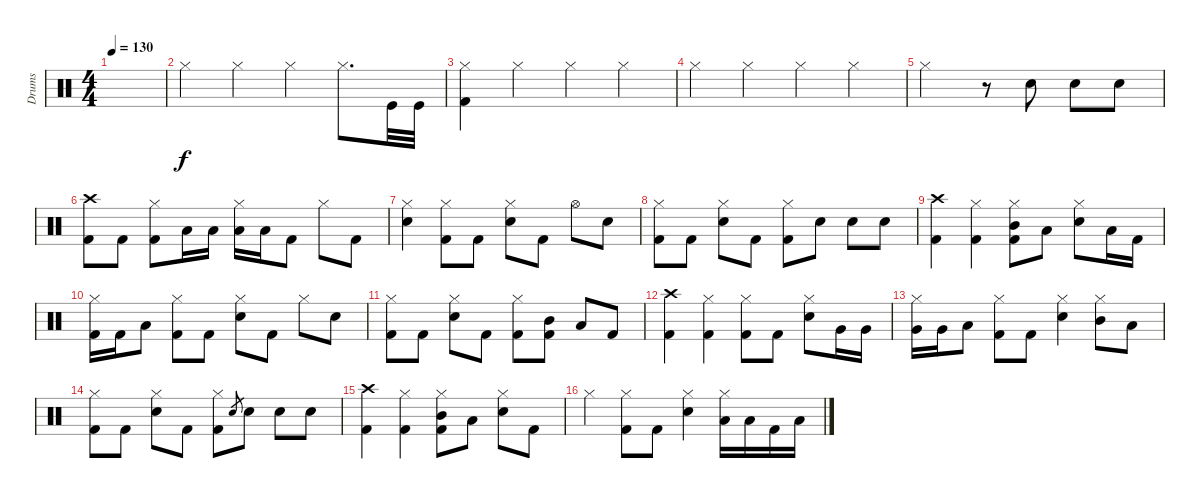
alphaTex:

\track ("Drums" "Drums") {instrument percussion}
\staff {score}
\articulation defaults
\ts (4 4)
\tempo 130
\clef neutral
\ks c
|
"Hi-Hat (closed)".4 "Hi-Hat (closed)".4 "Hi-Hat (closed)".4 "Hi-Hat (closed)".8{d} "Kick (hit)".32 "Kick (hit)".32 |
("Hi-Hat (closed)" "Kick (hit) 2").4 "Hi-Hat (closed)".4 "Hi-Hat (closed)".4 "Hi-Hat (closed)".4 |
"Hi-Hat (closed)".4 "Hi-Hat (closed)".4 "Hi-Hat (closed)".4 "Hi-Hat (closed)".4 |
"Hi-Hat (closed)".2 r.8 "Snare (hit) 2".8 "Snare (hit) 2".8 "Snare (hit) 2".8 |
("Crash high (hit)" "Kick (hit) 2").8 "Kick (hit) 2".8 ("Hi-Hat (closed)" "Kick (hit) 2").8 "Low Tom (hit)".16 "Low Tom (hit)".16 ("Hi-Hat (closed)" "Low Floor Tom (hit)").16 "Low Floor Tom (hit)".16 "Kick (hit) 2".8 "Hi-Hat (closed)".8 "Kick (hit) 2".8 |
("Hi-Hat (closed)" "Snare (hit) 2").4 ("Hi-Hat (closed)" "Kick (hit) 2").8 "Kick (hit) 2".8 ("Hi-Hat (closed)" "Snare (hit) 2").8 "Kick (hit) 2".8 "Hi-Hat (open)".8 "Snare (hit) 2".8 |
("Hi-Hat (closed)" "Kick (hit) 2").8 "Kick (hit) 2".8 ("Hi-Hat (closed)" "Snare (hit) 2").8 "Kick (hit) 2".8 ("Hi-Hat (closed)" "Kick (hit) 2").8 "Snare (hit) 2".8 "Snare (hit) 2".8 "Snare (hit) 2".8 |
("Crash high (hit)" "Kick (hit) 2").4 ("Hi-Hat (closed)" "Kick (hit) 2").4 ("Hi-Hat (closed)" "Mid Tom (hit)" "Kick (hit) 2").8 "Low Tom (hit)".8 ("Hi-Hat (closed)" "Snare (hit) 2").8 "Low Floor Tom (hit)".16 "Kick (hit) 2".16 |
("Hi-Hat (closed)" "Kick (hit) 2").16 "Kick (hit) 2".16 "Low Floor Tom (hit)".8 ("Hi-Hat (closed)" "Kick (hit) 2").8 "Kick (hit) 2".8 ("Hi-Hat (closed)" "Snare (hit) 2").8 "Kick (hit) 2".8 "Hi-Hat (closed)".8 "Snare (hit) 2".8 |
("Hi-Hat (closed)" "Kick (hit) 2").8 "Kick (hit) 2".8 ("Hi-Hat (closed)" "Snare (hit) 2").8 "Kick (hit) 2".8 ("Hi-Hat (closed)" "Kick (hit) 2").8 ("Mid Tom (hit)" "Kick (hit) 2").8 "Low Tom (hit)".8 "Kick (hit) 2".8 |
("Crash high (hit)" "Kick (hit) 2").4 ("Hi-Hat (closed)" "Kick (hit) 2").4 ("Hi-Hat (closed)" "Kick (hit) 2").8 "Kick (hit) 2".8 ("Hi-Hat (closed)" "Snare (hit) 2").8 "Very Low Tom (hit)".16 "Very Low Tom (hit)".16 |
("Hi-Hat (closed)" "Very Low Tom (hit)").16 "Very Low Tom (hit)".16 "Low Floor Tom (hit)".8 ("Hi-Hat (closed)" "Kick (hit) 2").8 "Kick (hit) 2".8 ("Hi-Hat (closed)" "Snare (hit) 2").4 ("Hi-Hat (closed)" "Mid Tom (hit)").8 "Low Tom (hit)".8 |
("Hi-Hat (closed)" "Kick (hit) 2").8 "Kick (hit) 2".8 ("Hi-Hat (closed)" "Snare (hit) 2").8 "Kick (hit) 2".8 ("Hi-Hat (closed)" "Kick (hit) 2").8 "Snare (hit) 2".8{gr} "Snare (hit) 2".8 "Snare (hit) 2".8 "Snare (hit) 2".8 |
("Crash high (hit)" "Kick (hit) 2").4 ("Hi-Hat (closed)" "Kick (hit) 2").4 ("Hi-Hat (closed)" "Mid Tom (hit)" "Kick (hit) 2").8 "Low Tom (hit)".8 ("Hi-Hat (closed)" "Snare (hit) 2").8 "Kick (hit) 2".8 |
"Hi-Hat (closed)".4 ("Hi-Hat (closed)" "Kick (hit) 2").8 "Kick (hit) 2".8 ("Hi-Hat (closed)" "Snare (hit) 2").4 ("Hi-Hat (closed)" "Low Floor Tom (hit)").16 "Low Floor Tom (hit)".16 "Kick (hit) 2".16 "Low Tom (hit)".16
